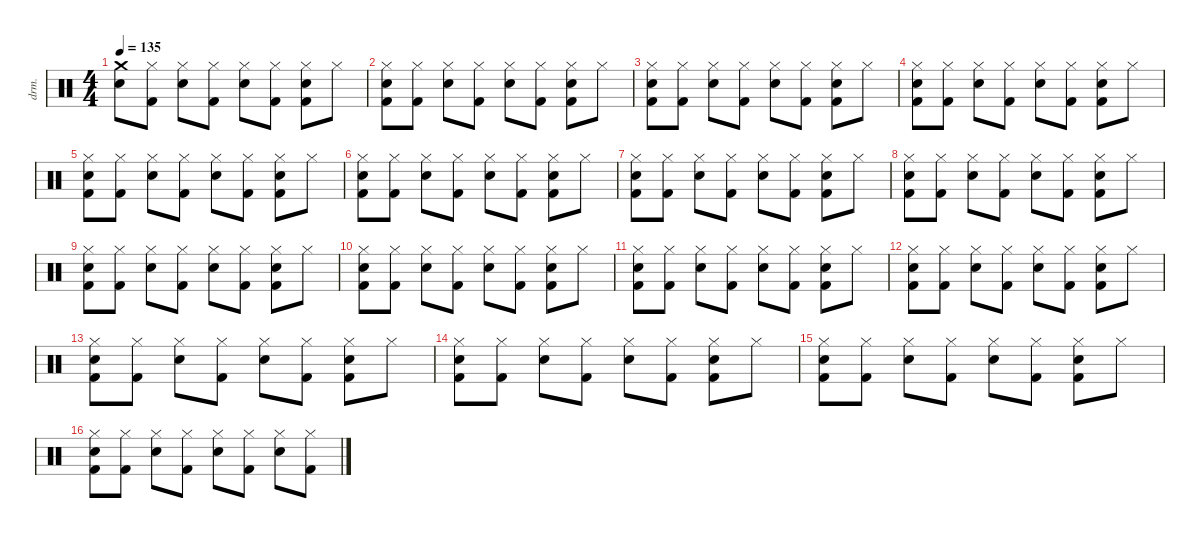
\defaultSystemsLayout 4
\hideDynamics
\bracketExtendMode nobrackets
\otherSystemsTrackNameOrientation horizontal
\track ("Lars Ulrich (Drums)" "drm.") {instrument percussion}
\staff {score}
\articulation defaults
\ts (4 4)
\tempo 135
\clef neutral
\ks c
("Crash medium (hit)" "Snare (hit) 2").8{dy f beam Down} ("Kick (hit) 2" "Hi-Hat (closed)").8{beam Down} ("Snare (hit) 2" "Hi-Hat (closed)").8{beam Down} ("Kick (hit) 2" "Hi-Hat (closed)").8{beam Down} ("Hi-Hat (closed)" "Snare (hit) 2").8{beam Down} ("Hi-Hat (closed)" "Kick (hit) 2").8{beam Down} ("Snare (hit) 2" "Hi-Hat (closed)" "Kick (hit) 2").8{beam Down} "Hi-Hat (closed)".8{beam Down} |
("Kick (hit) 2" "Snare (hit) 2" "Hi-Hat (closed)").8{beam Down} ("Hi-Hat (closed)" "Kick (hit) 2").8{beam Down} ("Snare (hit) 2" "Hi-Hat (closed)").8{beam Down} ("Kick (hit) 2" "Hi-Hat (closed)").8{beam Down} ("Hi-Hat (closed)" "Snare (hit) 2").8{beam Down} ("Kick (hit) 2" "Hi-Hat (closed)").8{beam Down} ("Kick (hit) 2" "Hi-Hat (closed)" "Snare (hit) 2").8{beam Down} "Hi-Hat (closed)".8{beam Down} |
("Kick (hit) 2" "Snare (hit) 2" "Hi-Hat (closed)").8{beam Down} ("Hi-Hat (closed)" "Kick (hit) 2").8{beam Down} ("Snare (hit) 2" "Hi-Hat (closed)").8{beam Down} ("Kick (hit) 2" "Hi-Hat (closed)").8{beam Down} ("Hi-Hat (closed)" "Snare (hit) 2").8{beam Down} ("Kick (hit) 2" "Hi-Hat (closed)").8{beam Down} ("Kick (hit) 2" "Hi-Hat (closed)" "Snare (hit) 2").8{beam Down} "Hi-Hat (closed)".8{beam Down} |
("Kick (hit) 2" "Snare (hit) 2" "Hi-Hat (closed)").8{beam Down} ("Hi-Hat (closed)" "Kick (hit) 2").8{beam Down} ("Snare (hit) 2" "Hi-Hat (closed)").8{beam Down} ("Kick (hit) 2" "Hi-Hat (closed)").8{beam Down} ("Hi-Hat (closed)" "Snare (hit) 2").8{beam Down} ("Kick (hit) 2" "Hi-Hat (closed)").8{beam Down} ("Kick (hit) 2" "Hi-Hat (closed)" "Snare (hit) 2").8{beam Down} "Hi-Hat (closed)".8{beam Down} |
("Kick (hit) 2" "Snare (hit) 2" "Hi-Hat (closed)").8{beam Down} ("Hi-Hat (closed)" "Kick (hit) 2").8{beam Down} ("Snare (hit) 2" "Hi-Hat (closed)").8{beam Down} ("Kick (hit) 2" "Hi-Hat (closed)").8{beam Down} ("Hi-Hat (closed)" "Snare (hit) 2").8{beam Down} ("Kick (hit) 2" "Hi-Hat (closed)").8{beam Down} ("Kick (hit) 2" "Hi-Hat (closed)" "Snare (hit) 2").8{beam Down} "Hi-Hat (closed)".8{beam Down} |
("Kick (hit) 2" "Snare (hit) 2" "Hi-Hat (closed)").8{beam Down} ("Hi-Hat (closed)" "Kick (hit) 2").8{beam Down} ("Snare (hit) 2" "Hi-Hat (closed)").8{beam Down} ("Kick (hit) 2" "Hi-Hat (closed)").8{beam Down} ("Hi-Hat (closed)" "Snare (hit) 2").8{beam Down} ("Kick (hit) 2" "Hi-Hat (closed)").8{beam Down} ("Kick (hit) 2" "Hi-Hat (closed)" "Snare (hit) 2").8{beam Down} "Hi-Hat (closed)".8{beam Down} |
("Kick (hit) 2" "Snare (hit) 2" "Hi-Hat (closed)").8{beam Down} ("Hi-Hat (closed)" "Kick (hit) 2").8{beam Down} ("Snare (hit) 2" "Hi-Hat (closed)").8{beam Down} ("Kick (hit) 2" "Hi-Hat (closed)").8{beam Down} ("Hi-Hat (closed)" "Snare (hit) 2").8{beam Down} ("Kick (hit) 2" "Hi-Hat (closed)").8{beam Down} ("Kick (hit) 2" "Hi-Hat (closed)" "Snare (hit) 2").8{beam Down} "Hi-Hat (closed)".8{beam Down} |
("Kick (hit) 2" "Snare (hit) 2" "Hi-Hat (closed)").8{beam Down} ("Hi-Hat (closed)" "Kick (hit) 2").8{beam Down} ("Snare (hit) 2" "Hi-Hat (closed)").8{beam Down} ("Kick (hit) 2" "Hi-Hat (closed)").8{beam Down} ("Hi-Hat (closed)" "Snare (hit) 2").8{beam Down} ("Kick (hit) 2" "Hi-Hat (closed)").8{beam Down} ("Kick (hit) 2" "Hi-Hat (closed)" "Snare (hit) 2").8{beam Down} "Hi-Hat (closed)".8{beam Down} |
("Kick (hit) 2" "Snare (hit) 2" "Hi-Hat (closed)").8{beam Down} ("Hi-Hat (closed)" "Kick (hit) 2").8{beam Down} ("Snare (hit) 2" "Hi-Hat (closed)").8{beam Down} ("Kick (hit) 2" "Hi-Hat (closed)").8{beam Down} ("Hi-Hat (closed)" "Snare (hit) 2").8{beam Down} ("Kick (hit) 2" "Hi-Hat (closed)").8{beam Down} ("Kick (hit) 2" "Hi-Hat (closed)" "Snare (hit) 2").8{beam Down} "Hi-Hat (closed)".8{beam Down} |
("Kick (hit) 2" "Snare (hit) 2" "Hi-Hat (closed)").8{beam Down} ("Hi-Hat (closed)" "Kick (hit) 2").8{beam Down} ("Snare (hit) 2" "Hi-Hat (closed)").8{beam Down} ("Kick (hit) 2" "Hi-Hat (closed)").8{beam Down} ("Hi-Hat (closed)" "Snare (hit) 2").8{beam Down} ("Kick (hit) 2" "Hi-Hat (closed)").8{beam Down} ("Kick (hit) 2" "Hi-Hat (closed)" "Snare (hit) 2").8{beam Down} "Hi-Hat (closed)".8{beam Down} |
("Kick (hit) 2" "Snare (hit) 2" "Hi-Hat (closed)").8{beam Down} ("Hi-Hat (closed)" "Kick (hit) 2").8{beam Down} ("Snare (hit) 2" "Hi-Hat (closed)").8{beam Down} ("Kick (hit) 2" "Hi-Hat (closed)").8{beam Down} ("Hi-Hat (closed)" "Snare (hit) 2").8{beam Down} ("Kick (hit) 2" "Hi-Hat (closed)").8{beam Down} ("Kick (hit) 2" "Hi-Hat (closed)" "Snare (hit) 2").8{beam Down} "Hi-Hat (closed)".8{beam Down} |
("Kick (hit) 2" "Snare (hit) 2" "Hi-Hat (closed)").8{beam Down} ("Hi-Hat (closed)" "Kick (hit) 2").8{beam Down} ("Snare (hit) 2" "Hi-Hat (closed)").8{beam Down} ("Kick (hit) 2" "Hi-Hat (closed)").8{beam Down} ("Hi-Hat (closed)" "Snare (hit) 2").8{beam Down} ("Kick (hit) 2" "Hi-Hat (closed)").8{beam Down} ("Kick (hit) 2" "Hi-Hat (closed)" "Snare (hit) 2").8{beam Down} "Hi-Hat (closed)".8{beam Down} |
("Kick (hit) 2" "Snare (hit) 2" "Hi-Hat (closed)").8{beam Down} ("Hi-Hat (closed)" "Kick (hit) 2").8{beam Down} ("Snare (hit) 2" "Hi-Hat (closed)").8{beam Down} ("Kick (hit) 2" "Hi-Hat (closed)").8{beam Down} ("Hi-Hat (closed)" "Snare (hit) 2").8{beam Down} ("Kick (hit) 2" "Hi-Hat (closed)").8{beam Down} ("Kick (hit) 2" "Hi-Hat (closed)" "Snare (hit) 2").8{beam Down} "Hi-Hat (closed)".8{beam Down} |
("Kick (hit) 2" "Snare (hit) 2" "Hi-Hat (closed)").8{beam Down} ("Hi-Hat (closed)" "Kick (hit) 2").8{beam Down} ("Snare (hit) 2" "Hi-Hat (closed)").8{beam Down} ("Kick (hit) 2" "Hi-Hat (closed)").8{beam Down} ("Hi-Hat (closed)" "Snare (hit) 2").8{beam Down} ("Kick (hit) 2" "Hi-Hat (closed)").8{beam Down} ("Kick (hit) 2" "Hi-Hat (closed)" "Snare (hit) 2").8{beam Down} "Hi-Hat (closed)".8{beam Down} |
("Kick (hit) 2" "Snare (hit) 2" "Hi-Hat (closed)").8{beam Down} ("Hi-Hat (closed)" "Kick (hit) 2").8{beam Down} ("Snare (hit) 2" "Hi-Hat (closed)").8{beam Down} ("Kick (hit) 2" "Hi-Hat (closed)").8{beam Down} ("Hi-Hat (closed)" "Snare (hit) 2").8{beam Down} ("Kick (hit) 2" "Hi-Hat (closed)").8{beam Down} ("Kick (hit) 2" "Hi-Hat (closed)" "Snare (hit) 2").8{beam Down} "Hi-Hat (closed)".8{beam Down} |
("Kick (hit) 2" "Snare (hit) 2" "Hi-Hat (closed)").8{beam Down} ("Hi-Hat (closed)" "Kick (hit) 2").8{beam Down} ("Snare (hit) 2" "Hi-Hat (closed)").8{beam Down} ("Kick (hit) 2" "Hi-Hat (closed)").8{beam Down} ("Hi-Hat (closed)" "Snare (hit) 2").8{beam Down} ("Kick (hit) 2" "Hi-Hat (closed)").8{beam Down} ("Hi-Hat (closed)" "Snare (hit) 2").8{beam Down} ("Kick (hit) 2" "Hi-Hat (closed)").8{beam Down}
